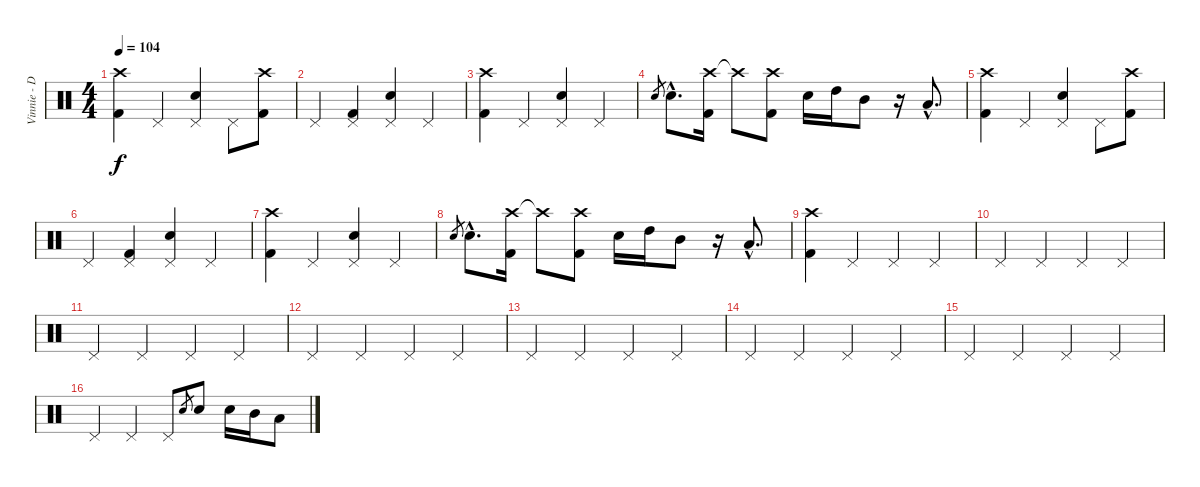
\track ("Vinnie - Drums" "Vinnie - D") {instrument percussion}
\staff {score}
\articulation defaults
\ts (4 4)
\tempo 104
\clef neutral
\ks c
("Crash high (hit)" "Kick (hit) 2").4{dy f} "Pedal Hi-Hat (hit)".4 ("Pedal Hi-Hat (hit)" "Electric Snare (hit)").4 "Pedal Hi-Hat (hit)".8 ("Crash high (hit)" "Kick (hit) 2").8 |
"Pedal Hi-Hat (hit)".4 ("Pedal Hi-Hat (hit)" "Kick (hit) 2").4 ("Pedal Hi-Hat (hit)" "Electric Snare (hit)").4 "Pedal Hi-Hat (hit)".4 |
("Crash high (hit)" "Kick (hit) 2").4 "Pedal Hi-Hat (hit)".4 ("Pedal Hi-Hat (hit)" "Electric Snare (hit)").4 "Pedal Hi-Hat (hit)".4 |
"Electric Snare (hit)".8{gr} "Electric Snare (hit)"{hac}.8{d} ("Crash high (hit)" "Kick (hit) 2").16 "Crash high (hit)"{t}.8 ("Crash high (hit)" "Kick (hit) 2").8 "Electric Snare (hit)".16 "High Tom (hit)".16 "Mid Tom (hit)".8 r.16 "Low Tom (hit)"{hac}.8{d} |
("Crash high (hit)" "Kick (hit) 2").4 "Pedal Hi-Hat (hit)".4 ("Pedal Hi-Hat (hit)" "Electric Snare (hit)").4 "Pedal Hi-Hat (hit)".8 ("Crash high (hit)" "Kick (hit) 2").8 |
"Pedal Hi-Hat (hit)".4 ("Pedal Hi-Hat (hit)" "Kick (hit) 2").4 ("Pedal Hi-Hat (hit)" "Electric Snare (hit)").4 "Pedal Hi-Hat (hit)".4 |
("Crash high (hit)" "Kick (hit) 2").4 "Pedal Hi-Hat (hit)".4 ("Pedal Hi-Hat (hit)" "Electric Snare (hit)").4 "Pedal Hi-Hat (hit)".4 |
"Electric Snare (hit)".8{gr} "Electric Snare (hit)"{hac}.8{d} ("Crash high (hit)" "Kick (hit) 2").16 "Crash high (hit)"{t}.8 ("Crash high (hit)" "Kick (hit) 2").8 "Electric Snare (hit)".16 "High Tom (hit)".16 "Mid Tom (hit)".8 r.16 "Low Tom (hit)"{hac}.8{d} |
("Crash high (hit)" "Kick (hit) 2").4 "Pedal Hi-Hat (hit)".4 "Pedal Hi-Hat (hit)".4 "Pedal Hi-Hat (hit)".4 |
"Pedal Hi-Hat (hit)".4 "Pedal Hi-Hat (hit)".4 "Pedal Hi-Hat (hit)".4 "Pedal Hi-Hat (hit)".4 |
"Pedal Hi-Hat (hit)".4 "Pedal Hi-Hat (hit)".4 "Pedal Hi-Hat (hit)".4 "Pedal Hi-Hat (hit)".4 |
"Pedal Hi-Hat (hit)".4 "Pedal Hi-Hat (hit)".4 "Pedal Hi-Hat (hit)".4 "Pedal Hi-Hat (hit)".4 |
"Pedal Hi-Hat (hit)".4 "Pedal Hi-Hat (hit)".4 "Pedal Hi-Hat (hit)".4 "Pedal Hi-Hat (hit)".4 |
"Pedal Hi-Hat (hit)".4 "Pedal Hi-Hat (hit)".4 "Pedal Hi-Hat (hit)".4 "Pedal Hi-Hat (hit)".4 |
"Pedal Hi-Hat (hit)".4 "Pedal Hi-Hat (hit)".4 "Pedal Hi-Hat (hit)".4 "Pedal Hi-Hat (hit)".4 |
"Pedal Hi-Hat (hit)".4 "Pedal Hi-Hat (hit)".4 "Pedal Hi-Hat (hit)".8 "Electric Snare (hit)".8{gr} "Electric Snare (hit)".8 "Electric Snare (hit)".16 "Mid Tom (hit)".16 "Low Tom (hit)".8
